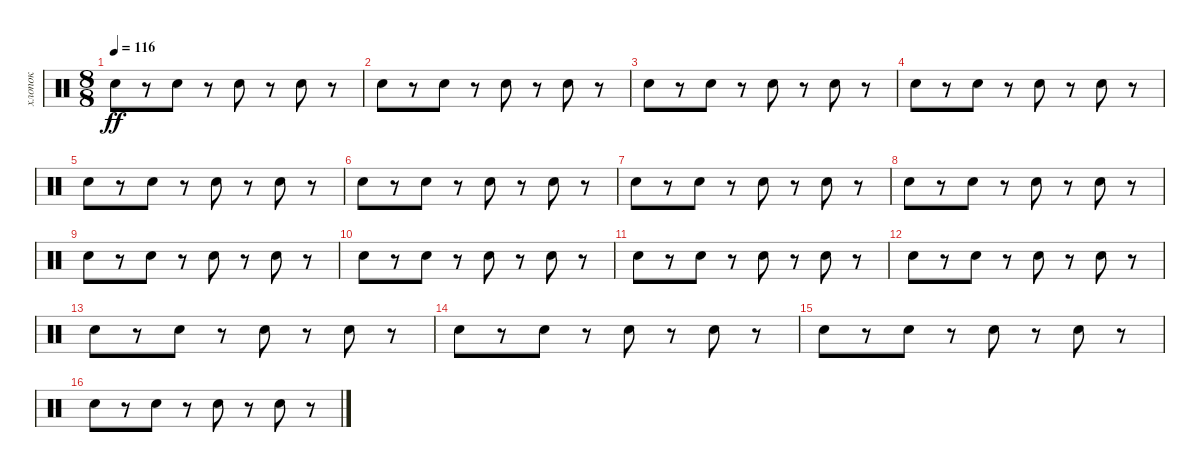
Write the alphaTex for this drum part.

\track ("хлопок" "хлопок") {instrument percussion}
\staff {score}
\articulation defaults
\ts (8 8)
\tempo 116
\clef neutral
\ks c "Hand Clap (hit)".8{dy ff}
r.8 "Hand Clap (hit)".8 r.8 "Hand Clap (hit)".8 r.8 "Hand Clap (hit)".8 r.8 |
"Hand Clap (hit)".8 r.8 "Hand Clap (hit)".8 r.8 "Hand Clap (hit)".8 r.8 "Hand Clap (hit)".8 r.8 |
"Hand Clap (hit)".8 r.8 "Hand Clap (hit)".8 r.8 "Hand Clap (hit)".8 r.8 "Hand Clap (hit)".8 r.8 |
"Hand Clap (hit)".8 r.8 "Hand Clap (hit)".8 r.8 "Hand Clap (hit)".8 r.8 "Hand Clap (hit)".8 r.8 |
"Hand Clap (hit)".8 r.8 "Hand Clap (hit)".8 r.8 "Hand Clap (hit)".8 r.8 "Hand Clap (hit)".8 r.8 |
"Hand Clap (hit)".8 r.8 "Hand Clap (hit)".8 r.8 "Hand Clap (hit)".8 r.8 "Hand Clap (hit)".8 r.8 |
"Hand Clap (hit)".8 r.8 "Hand Clap (hit)".8 r.8 "Hand Clap (hit)".8 r.8 "Hand Clap (hit)".8 r.8 |
"Hand Clap (hit)".8 r.8 "Hand Clap (hit)".8 r.8 "Hand Clap (hit)".8 r.8 "Hand Clap (hit)".8 r.8 |
"Hand Clap (hit)".8 r.8 "Hand Clap (hit)".8 r.8 "Hand Clap (hit)".8 r.8 "Hand Clap (hit)".8 r.8 |
"Hand Clap (hit)".8 r.8 "Hand Clap (hit)".8 r.8 "Hand Clap (hit)".8 r.8 "Hand Clap (hit)".8 r.8 |
"Hand Clap (hit)".8 r.8 "Hand Clap (hit)".8 r.8 "Hand Clap (hit)".8 r.8 "Hand Clap (hit)".8 r.8 |
"Hand Clap (hit)".8 r.8 "Hand Clap (hit)".8 r.8 "Hand Clap (hit)".8 r.8 "Hand Clap (hit)".8 r.8 |
"Hand Clap (hit)".8 r.8 "Hand Clap (hit)".8 r.8 "Hand Clap (hit)".8 r.8 "Hand Clap (hit)".8 r.8 |
"Hand Clap (hit)".8 r.8 "Hand Clap (hit)".8 r.8 "Hand Clap (hit)".8 r.8 "Hand Clap (hit)".8 r.8 |
"Hand Clap (hit)".8 r.8 "Hand Clap (hit)".8 r.8 "Hand Clap (hit)".8 r.8 "Hand Clap (hit)".8 r.8 |
"Hand Clap (hit)".8 r.8 "Hand Clap (hit)".8 r.8 "Hand Clap (hit)".8 r.8 "Hand Clap (hit)".8 r.8
